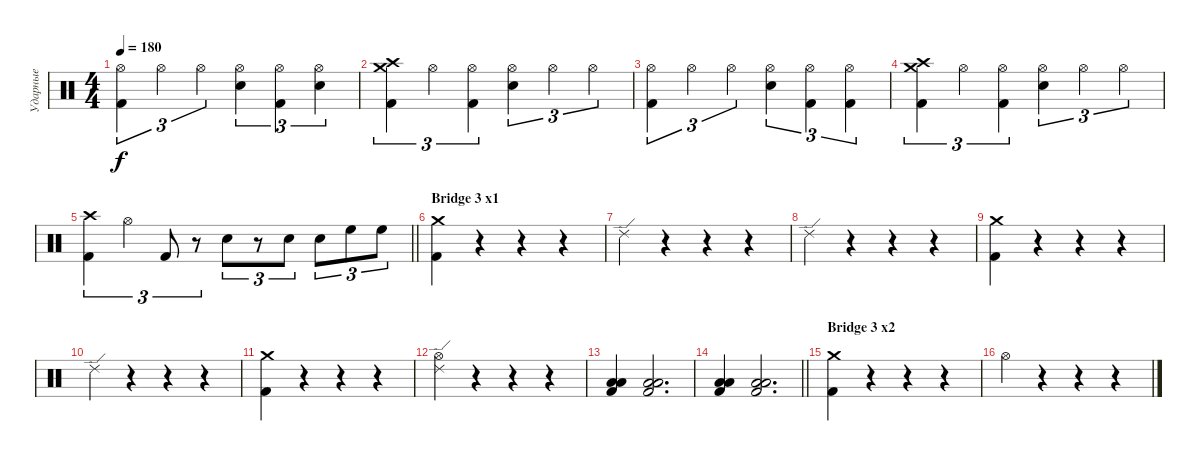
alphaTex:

\track ("Ударные" "Ударные") {instrument percussion}
\staff {score}
\articulation defaults
\ts (4 4)
\tempo 180
\clef neutral
\ks c
("Hi-Hat (open)" "Kick (hit) 2").4{tu (3 2) dy f} "Hi-Hat (open)".4{tu (3 2)} "Hi-Hat (open)".4{tu (3 2)} ("Hi-Hat (open)" "Electric Snare (hit)").4{tu (3 2)} ("Hi-Hat (open)" "Kick (hit) 2").4{tu (3 2)} ("Hi-Hat (open)" "Electric Snare (hit)").4{tu (3 2)} |
("Crash medium (hit)" "Crash high (hit)" "Kick (hit) 2").4{tu (3 2)} "Hi-Hat (open)".4{tu (3 2)} ("Hi-Hat (open)" "Kick (hit) 2").4{tu (3 2)} ("Hi-Hat (open)" "Electric Snare (hit)").4{tu (3 2)} "Hi-Hat (open)".4{tu (3 2)} "Hi-Hat (open)".4{tu (3 2)} |
("Hi-Hat (open)" "Kick (hit) 2").4{tu (3 2)} "Hi-Hat (open)".4{tu (3 2)} "Hi-Hat (open)".4{tu (3 2)} ("Hi-Hat (open)" "Electric Snare (hit)").4{tu (3 2)} ("Hi-Hat (open)" "Kick (hit) 2").4{tu (3 2)} ("Hi-Hat (open)" "Kick (hit) 2").4{tu (3 2)} |
("Crash medium (hit)" "Crash high (hit)" "Kick (hit) 2").4{tu (3 2)} "Hi-Hat (open)".4{tu (3 2)} ("Hi-Hat (open)" "Kick (hit) 2").4{tu (3 2)} ("Hi-Hat (open)" "Electric Snare (hit)").4{tu (3 2)} "Hi-Hat (open)".4{tu (3 2)} "Hi-Hat (open)".4{tu (3 2)} |
\barLineRight lightlight
("Crash high (hit)" "Kick (hit) 2").4{tu (3 2)} "Hi-Hat (open)".4{tu (3 2)} "Kick (hit) 2".8{tu (3 2)} r.8{tu (3 2)} "Electric Snare (hit)".8{tu (3 2)} r.8{tu (3 2)} "Electric Snare (hit)".8{tu (3 2)} "Electric Snare (hit)".8{tu (3 2)} "High Floor Tom (hit)".8{tu (3 2)} "High Floor Tom (hit)".8{tu (3 2)} |
\section ("" "Bridge 3 x1")
("Crash medium (hit)" "Kick (hit) 2").4 r.4 r.4 r.4 |
"Ride (edge) 2".4 r.4 r.4 r.4 |
"Ride (edge) 2".4 r.4 r.4 r.4 |
("Crash medium (hit)" "Kick (hit) 2").4 r.4 r.4 r.4 |
"Ride (edge) 2".4 r.4 r.4 r.4 |
("Crash medium (hit)" "Kick (hit) 2").4 r.4 r.4 r.4 |
("Hi-Hat (open)" "Ride (edge) 2").4 r.4 r.4 r.4 |
("Low Tom (hit)" "Low Floor Tom (hit)" "Kick (hit) 2").4 ("Low Tom (hit)" "Low Floor Tom (hit)" "Kick (hit) 2").2{d} |
\barLineRight lightlight
("Low Tom (hit)" "Low Floor Tom (hit)" "Kick (hit) 2").4 ("Low Tom (hit)" "Low Floor Tom (hit)" "Kick (hit) 2").2{d} |
\section ("" "Bridge 3 x2")
("Crash medium (hit)" "Kick (hit) 2").4 r.4 r.4 r.4 |
"Hi-Hat (open)".4 r.4 r.4 r.4
